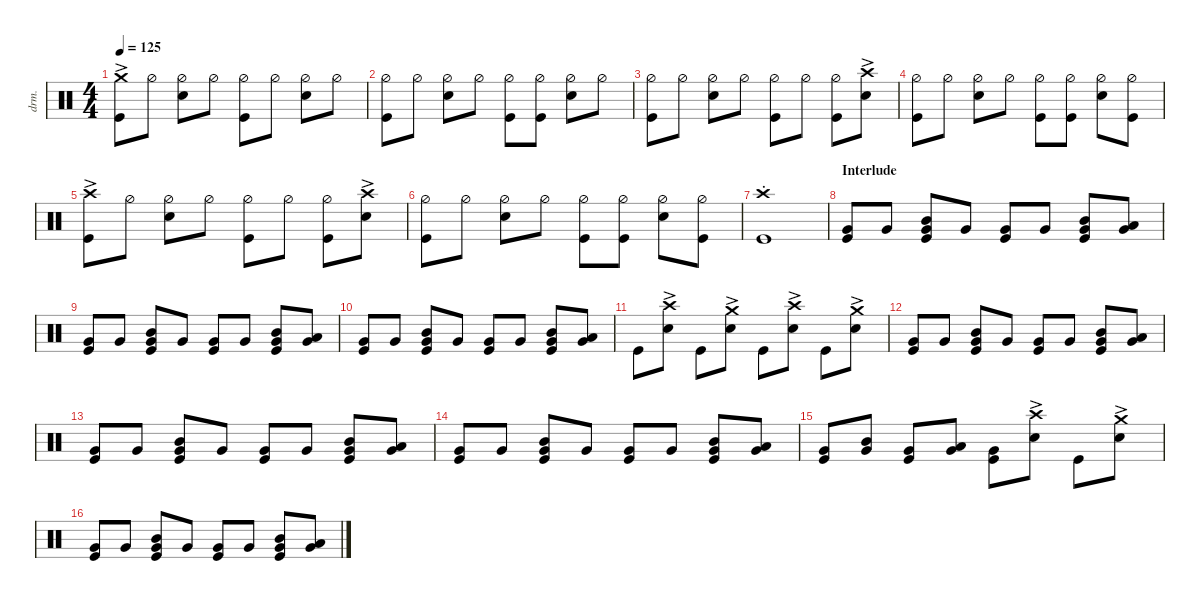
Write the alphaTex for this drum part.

\defaultSystemsLayout 4
\hideDynamics
\bracketExtendMode nobrackets
\track ("Drums" "drm.") {defaultSystemsLayout 4 multiBarRest instrument percussion}
\staff {score}
\articulation defaults
\ts (4 4)
\tempo 125
\clef neutral
\ks c
("Kick (hit)" "Crash medium (hit)"{ac}).8{dy f beam Down} "Hi-Hat (half)".8{beam Down} ("Hi-Hat (half)" "Snare (hit) 2").8{beam Down} "Hi-Hat (half)".8{beam Down} ("Hi-Hat (half)" "Kick (hit)").8{beam Down} "Hi-Hat (half)".8{beam Down} ("Hi-Hat (half)" "Snare (hit) 2").8{beam Down} "Hi-Hat (half)".8{beam Down} |
("Hi-Hat (half)" "Kick (hit)").8{beam Down} "Hi-Hat (half)".8{beam Down} ("Hi-Hat (half)" "Snare (hit) 2").8{beam Down} "Hi-Hat (half)".8{beam Down} ("Hi-Hat (half)" "Kick (hit)").8{beam Down} ("Hi-Hat (half)" "Kick (hit)").8{beam Down} ("Hi-Hat (half)" "Snare (hit) 2").8{beam Down} "Hi-Hat (half)".8{beam Down} |
("Hi-Hat (half)" "Kick (hit)").8{beam Down} "Hi-Hat (half)".8{beam Down} ("Hi-Hat (half)" "Snare (hit) 2").8{beam Down} "Hi-Hat (half)".8{beam Down} ("Hi-Hat (half)" "Kick (hit)").8{beam Down} "Hi-Hat (half)".8{beam Down} ("Hi-Hat (half)" "Kick (hit)").8{beam Down} ("Snare (hit) 2" "Crash high (hit)"{ac}).8{beam Down} |
("Hi-Hat (half)" "Kick (hit)").8{beam Down} "Hi-Hat (half)".8{beam Down} ("Hi-Hat (half)" "Snare (hit) 2").8{beam Down} "Hi-Hat (half)".8{beam Down} ("Hi-Hat (half)" "Kick (hit)").8{beam Down} ("Hi-Hat (half)" "Kick (hit)").8{beam Down} ("Hi-Hat (half)" "Snare (hit) 2").8{beam Down} ("Hi-Hat (half)" "Kick (hit)").8{beam Down} |
("Kick (hit)" "Crash high (hit)"{ac}).8{beam Down} "Hi-Hat (half)".8{beam Down} ("Hi-Hat (half)" "Snare (hit) 2").8{beam Down} "Hi-Hat (half)".8{beam Down} ("Hi-Hat (half)" "Kick (hit)").8{beam Down} "Hi-Hat (half)".8{beam Down} ("Hi-Hat (half)" "Kick (hit)").8{beam Down} ("Snare (hit) 2" "Crash high (hit)"{ac}).8{beam Down} |
("Hi-Hat (half)" "Kick (hit)").8{beam Down} "Hi-Hat (half)".8{beam Down} ("Hi-Hat (half)" "Snare (hit) 2").8{beam Down} "Hi-Hat (half)".8{beam Down} ("Hi-Hat (half)" "Kick (hit)").8{beam Down} ("Hi-Hat (half)" "Kick (hit)").8{beam Down} ("Hi-Hat (half)" "Snare (hit) 2").8{beam Down} ("Hi-Hat (half)" "Kick (hit)").8{beam Down} |
("Kick (hit)" "Crash high (hit)"{st}).1{beam Down} |
\section ("" "Interlude")
("Kick (hit)" "Very Low Tom (hit)").8{beam Up} "Very Low Tom (hit)".8{dy mf beam Up} ("Very Low Tom (hit)" "Kick (hit)" "Mid Tom (hit)").8{dy f beam Up} "Very Low Tom (hit)".8{dy mf beam Up} ("Very Low Tom (hit)" "Kick (hit)").8{dy f beam Up} "Very Low Tom (hit)".8{dy mf beam Up} ("Very Low Tom (hit)" "Kick (hit)" "Mid Tom (hit)").8{dy f beam Up} ("Very Low Tom (hit)" "Low Tom (hit)").8{beam Up} |
("Kick (hit)" "Very Low Tom (hit)").8{beam Up} "Very Low Tom (hit)".8{dy mf beam Up} ("Very Low Tom (hit)" "Kick (hit)" "Mid Tom (hit)").8{dy f beam Up} "Very Low Tom (hit)".8{dy mf beam Up} ("Very Low Tom (hit)" "Kick (hit)").8{dy f beam Up} "Very Low Tom (hit)".8{dy mf beam Up} ("Very Low Tom (hit)" "Kick (hit)" "Mid Tom (hit)").8{dy f beam Up} ("Very Low Tom (hit)" "Low Tom (hit)").8{beam Up} |
("Kick (hit)" "Very Low Tom (hit)").8{beam Up} "Very Low Tom (hit)".8{dy mf beam Up} ("Very Low Tom (hit)" "Kick (hit)" "Mid Tom (hit)").8{dy f beam Up} "Very Low Tom (hit)".8{dy mf beam Up} ("Very Low Tom (hit)" "Kick (hit)").8{dy f beam Up} "Very Low Tom (hit)".8{dy mf beam Up} ("Very Low Tom (hit)" "Kick (hit)" "Mid Tom (hit)").8{dy f beam Up} ("Very Low Tom (hit)" "Low Tom (hit)").8{beam Up} |
"Kick (hit)".8{beam Down} ("Snare (hit) 2" "Crash high (hit)"{ac}).8{beam Down} "Kick (hit)".8{beam Down} ("Snare (hit) 2" "Crash medium (hit)"{ac}).8{beam Down} "Kick (hit)".8{beam Down} ("Snare (hit) 2" "Crash high (hit)"{ac}).8{beam Down} "Kick (hit)".8{beam Down} ("Snare (hit) 2" "Crash medium (hit)"{ac}).8{beam Down} |
("Kick (hit)" "Very Low Tom (hit)").8{beam Up} "Very Low Tom (hit)".8{dy mf beam Up} ("Very Low Tom (hit)" "Kick (hit)" "Mid Tom (hit)").8{dy f beam Up} "Very Low Tom (hit)".8{dy mf beam Up} ("Very Low Tom (hit)" "Kick (hit)").8{dy f beam Up} "Very Low Tom (hit)".8{dy mf beam Up} ("Very Low Tom (hit)" "Kick (hit)" "Mid Tom (hit)").8{dy f beam Up} ("Very Low Tom (hit)" "Low Tom (hit)").8{beam Up} |
("Kick (hit)" "Very Low Tom (hit)").8{beam Up} "Very Low Tom (hit)".8{dy mf beam Up} ("Very Low Tom (hit)" "Kick (hit)" "Mid Tom (hit)").8{dy f beam Up} "Very Low Tom (hit)".8{dy mf beam Up} ("Very Low Tom (hit)" "Kick (hit)").8{dy f beam Up} "Very Low Tom (hit)".8{dy mf beam Up} ("Very Low Tom (hit)" "Kick (hit)" "Mid Tom (hit)").8{dy f beam Up} ("Very Low Tom (hit)" "Low Tom (hit)").8{beam Up} |
("Kick (hit)" "Very Low Tom (hit)").8{beam Up} "Very Low Tom (hit)".8{dy mf beam Up} ("Very Low Tom (hit)" "Kick (hit)" "Mid Tom (hit)").8{dy f beam Up} "Very Low Tom (hit)".8{dy mf beam Up} ("Very Low Tom (hit)" "Kick (hit)").8{dy f beam Up} "Very Low Tom (hit)".8{dy mf beam Up} ("Very Low Tom (hit)" "Kick (hit)" "Mid Tom (hit)").8{dy f beam Up} ("Very Low Tom (hit)" "Low Tom (hit)").8{beam Up} |
("Kick (hit)" "Very Low Tom (hit)").8{beam Up} ("Very Low Tom (hit)" "Mid Tom (hit)").8{beam Up} ("Very Low Tom (hit)" "Kick (hit)").8{beam Up} ("Very Low Tom (hit)" "Low Tom (hit)").8{beam Up} ("Very Low Tom (hit)" "Kick (hit)").8{beam Down} ("Snare (hit) 2" "Crash high (hit)"{ac}).8{beam Down} "Kick (hit)".8{beam Down} ("Snare (hit) 2" "Crash medium (hit)"{ac}).8{beam Down} |
("Kick (hit)" "Very Low Tom (hit)").8{beam Up} "Very Low Tom (hit)".8{dy mf beam Up} ("Very Low Tom (hit)" "Kick (hit)" "Mid Tom (hit)").8{dy f beam Up} "Very Low Tom (hit)".8{dy mf beam Up} ("Very Low Tom (hit)" "Kick (hit)").8{dy f beam Up} "Very Low Tom (hit)".8{dy mf beam Up} ("Very Low Tom (hit)" "Kick (hit)" "Mid Tom (hit)").8{dy f beam Up} ("Very Low Tom (hit)" "Low Tom (hit)").8{beam Up}
